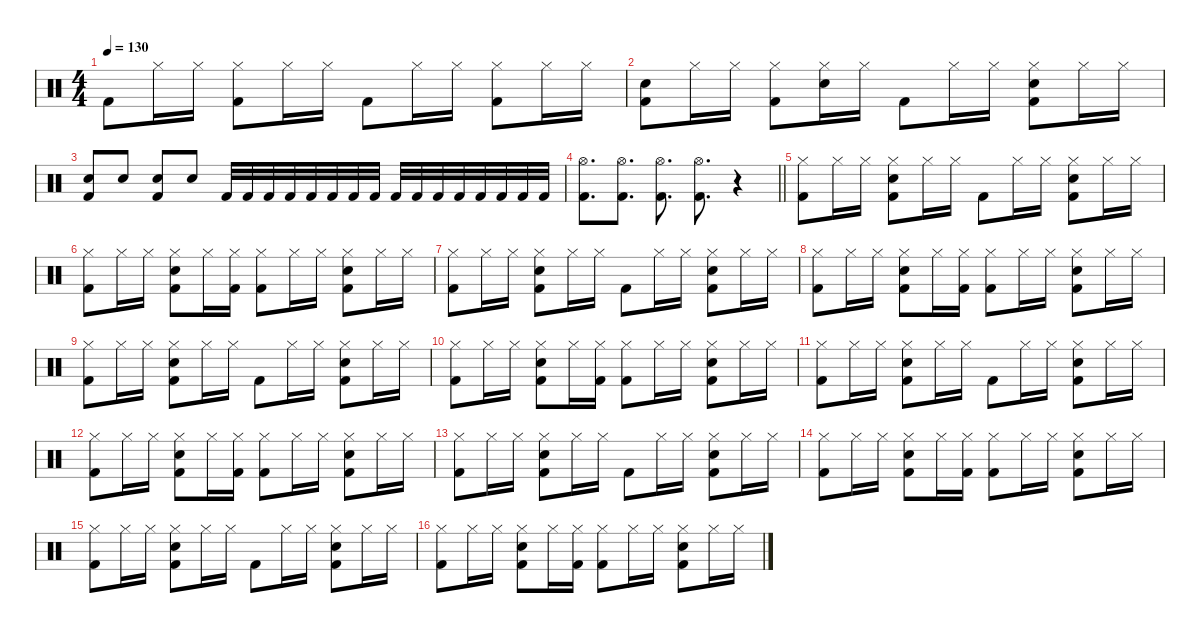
\defaultSystemsLayout 4
\hideDynamics
\bracketExtendMode nobrackets
\singleTrackTrackNamePolicy hidden
\multiTrackTrackNamePolicy hidden
\otherSystemsTrackNameOrientation horizontal
\track ("Percussion" "drm.") {defaultSystemsLayout 4 instrument percussion}
\staff {score}
\articulation defaults
\ts (4 4)
\tempo 130
\clef neutral
\ks c "Kick (hit) 2".8{dy f beam Down} "Hi-Hat (closed)".16{beam Down} "Hi-Hat (closed)".16{beam Down}
("Hi-Hat (closed)" "Kick (hit) 2").8{beam Down} "Hi-Hat (closed)".16{beam Down} "Hi-Hat (closed)".16{beam Down} "Kick (hit) 2".8{beam Down} "Hi-Hat (closed)".16{beam Down} "Hi-Hat (closed)".16{beam Down} ("Hi-Hat (closed)" "Kick (hit) 2").8{beam Down} "Hi-Hat (closed)".16{beam Down} "Hi-Hat (closed)".16{beam Down} |
("Snare (hit) 2" "Kick (hit) 2").8{beam Down} "Hi-Hat (closed)".16{beam Down} "Hi-Hat (closed)".16{beam Down} ("Hi-Hat (closed)" "Kick (hit) 2").8{beam Down} ("Hi-Hat (closed)" "Snare (hit) 2").16{beam Down} "Hi-Hat (closed)".16{beam Down} "Kick (hit) 2".8{beam Down} "Hi-Hat (closed)".16{beam Down} "Hi-Hat (closed)".16{beam Down} ("Hi-Hat (closed)" "Snare (hit) 2" "Kick (hit) 2").8{beam Down} "Hi-Hat (closed)".16{beam Down} "Hi-Hat (closed)".16{beam Down} |
("Snare (hit) 2" "Kick (hit) 2").8{beam Up} "Snare (hit) 2".8{beam Up} ("Snare (hit) 2" "Kick (hit) 2").8{beam Up} "Snare (hit) 2".8{beam Up} "Kick (hit) 2".32{beam Up} "Kick (hit) 2".32{beam Up} "Kick (hit) 2".32{beam Up} "Kick (hit) 2".32{beam Up} "Kick (hit) 2".32{beam Up} "Kick (hit) 2".32{beam Up} "Kick (hit) 2".32{beam Up} "Kick (hit) 2".32{beam Up} "Kick (hit) 2".32{beam Up} "Kick (hit) 2".32{beam Up} "Kick (hit) 2".32{beam Up} "Kick (hit) 2".32{beam Up} "Kick (hit) 2".32{beam Up} "Kick (hit) 2".32{beam Up} "Kick (hit) 2".32{beam Up} "Kick (hit) 2".32{beam Up} |
\barLineRight lightlight
("Hi-Hat (open)" "Kick (hit) 2").8{d beam Down} ("Hi-Hat (open)" "Kick (hit) 2").8{d beam Down} ("Hi-Hat (open)" "Kick (hit) 2").8{d beam Down} ("Hi-Hat (open)" "Kick (hit) 2").8{d beam Down} r.4{beam Down} |
("Hi-Hat (closed)" "Kick (hit) 2").8{beam Down} "Hi-Hat (closed)".16{beam Down} "Hi-Hat (closed)".16{beam Down} ("Hi-Hat (closed)" "Snare (hit) 2" "Kick (hit) 2").8{beam Down} "Hi-Hat (closed)".16{beam Down} "Hi-Hat (closed)".16{beam Down} "Kick (hit) 2".8{beam Down} "Hi-Hat (closed)".16{beam Down} "Hi-Hat (closed)".16{beam Down} ("Hi-Hat (closed)" "Snare (hit) 2" "Kick (hit) 2").8{beam Down} "Hi-Hat (closed)".16{beam Down} "Hi-Hat (closed)".16{beam Down} |
("Hi-Hat (closed)" "Kick (hit) 2").8{beam Down} "Hi-Hat (closed)".16{beam Down} "Hi-Hat (closed)".16{beam Down} ("Hi-Hat (closed)" "Snare (hit) 2" "Kick (hit) 2").8{beam Down} "Hi-Hat (closed)".16{beam Down} ("Hi-Hat (closed)" "Kick (hit) 2").16{beam Down} ("Hi-Hat (closed)" "Kick (hit) 2").8{beam Down} "Hi-Hat (closed)".16{beam Down} "Hi-Hat (closed)".16{beam Down} ("Hi-Hat (closed)" "Snare (hit) 2" "Kick (hit) 2").8{beam Down} "Hi-Hat (closed)".16{beam Down} "Hi-Hat (closed)".16{beam Down} |
("Hi-Hat (closed)" "Kick (hit) 2").8{beam Down} "Hi-Hat (closed)".16{beam Down} "Hi-Hat (closed)".16{beam Down} ("Hi-Hat (closed)" "Snare (hit) 2" "Kick (hit) 2").8{beam Down} "Hi-Hat (closed)".16{beam Down} "Hi-Hat (closed)".16{beam Down} "Kick (hit) 2".8{beam Down} "Hi-Hat (closed)".16{beam Down} "Hi-Hat (closed)".16{beam Down} ("Hi-Hat (closed)" "Snare (hit) 2" "Kick (hit) 2").8{beam Down} "Hi-Hat (closed)".16{beam Down} "Hi-Hat (closed)".16{beam Down} |
("Hi-Hat (closed)" "Kick (hit) 2").8{beam Down} "Hi-Hat (closed)".16{beam Down} "Hi-Hat (closed)".16{beam Down} ("Hi-Hat (closed)" "Snare (hit) 2" "Kick (hit) 2").8{beam Down} "Hi-Hat (closed)".16{beam Down} ("Hi-Hat (closed)" "Kick (hit) 2").16{beam Down} ("Hi-Hat (closed)" "Kick (hit) 2").8{beam Down} "Hi-Hat (closed)".16{beam Down} "Hi-Hat (closed)".16{beam Down} ("Hi-Hat (closed)" "Snare (hit) 2" "Kick (hit) 2").8{beam Down} "Hi-Hat (closed)".16{beam Down} "Hi-Hat (closed)".16{beam Down} |
("Hi-Hat (closed)" "Kick (hit) 2").8{beam Down} "Hi-Hat (closed)".16{beam Down} "Hi-Hat (closed)".16{beam Down} ("Hi-Hat (closed)" "Snare (hit) 2" "Kick (hit) 2").8{beam Down} "Hi-Hat (closed)".16{beam Down} "Hi-Hat (closed)".16{beam Down} "Kick (hit) 2".8{beam Down} "Hi-Hat (closed)".16{beam Down} "Hi-Hat (closed)".16{beam Down} ("Hi-Hat (closed)" "Snare (hit) 2" "Kick (hit) 2").8{beam Down} "Hi-Hat (closed)".16{beam Down} "Hi-Hat (closed)".16{beam Down} |
("Hi-Hat (closed)" "Kick (hit) 2").8{beam Down} "Hi-Hat (closed)".16{beam Down} "Hi-Hat (closed)".16{beam Down} ("Hi-Hat (closed)" "Snare (hit) 2" "Kick (hit) 2").8{beam Down} "Hi-Hat (closed)".16{beam Down} ("Hi-Hat (closed)" "Kick (hit) 2").16{beam Down} ("Hi-Hat (closed)" "Kick (hit) 2").8{beam Down} "Hi-Hat (closed)".16{beam Down} "Hi-Hat (closed)".16{beam Down} ("Hi-Hat (closed)" "Snare (hit) 2" "Kick (hit) 2").8{beam Down} "Hi-Hat (closed)".16{beam Down} "Hi-Hat (closed)".16{beam Down} |
("Hi-Hat (closed)" "Kick (hit) 2").8{beam Down} "Hi-Hat (closed)".16{beam Down} "Hi-Hat (closed)".16{beam Down} ("Hi-Hat (closed)" "Snare (hit) 2" "Kick (hit) 2").8{beam Down} "Hi-Hat (closed)".16{beam Down} "Hi-Hat (closed)".16{beam Down} "Kick (hit) 2".8{beam Down} "Hi-Hat (closed)".16{beam Down} "Hi-Hat (closed)".16{beam Down} ("Hi-Hat (closed)" "Snare (hit) 2" "Kick (hit) 2").8{beam Down} "Hi-Hat (closed)".16{beam Down} "Hi-Hat (closed)".16{beam Down} |
("Hi-Hat (closed)" "Kick (hit) 2").8{beam Down} "Hi-Hat (closed)".16{beam Down} "Hi-Hat (closed)".16{beam Down} ("Hi-Hat (closed)" "Snare (hit) 2" "Kick (hit) 2").8{beam Down} "Hi-Hat (closed)".16{beam Down} ("Hi-Hat (closed)" "Kick (hit) 2").16{beam Down} ("Hi-Hat (closed)" "Kick (hit) 2").8{beam Down} "Hi-Hat (closed)".16{beam Down} "Hi-Hat (closed)".16{beam Down} ("Hi-Hat (closed)" "Snare (hit) 2" "Kick (hit) 2").8{beam Down} "Hi-Hat (closed)".16{beam Down} "Hi-Hat (closed)".16{beam Down} |
("Hi-Hat (closed)" "Kick (hit) 2").8{beam Down} "Hi-Hat (closed)".16{beam Down} "Hi-Hat (closed)".16{beam Down} ("Hi-Hat (closed)" "Snare (hit) 2" "Kick (hit) 2").8{beam Down} "Hi-Hat (closed)".16{beam Down} "Hi-Hat (closed)".16{beam Down} "Kick (hit) 2".8{beam Down} "Hi-Hat (closed)".16{beam Down} "Hi-Hat (closed)".16{beam Down} ("Hi-Hat (closed)" "Snare (hit) 2" "Kick (hit) 2").8{beam Down} "Hi-Hat (closed)".16{beam Down} "Hi-Hat (closed)".16{beam Down} |
("Hi-Hat (closed)" "Kick (hit) 2").8{beam Down} "Hi-Hat (closed)".16{beam Down} "Hi-Hat (closed)".16{beam Down} ("Hi-Hat (closed)" "Snare (hit) 2" "Kick (hit) 2").8{beam Down} "Hi-Hat (closed)".16{beam Down} ("Hi-Hat (closed)" "Kick (hit) 2").16{beam Down} ("Hi-Hat (closed)" "Kick (hit) 2").8{beam Down} "Hi-Hat (closed)".16{beam Down} "Hi-Hat (closed)".16{beam Down} ("Hi-Hat (closed)" "Snare (hit) 2" "Kick (hit) 2").8{beam Down} "Hi-Hat (closed)".16{beam Down} "Hi-Hat (closed)".16{beam Down} |
("Hi-Hat (closed)" "Kick (hit) 2").8{beam Down} "Hi-Hat (closed)".16{beam Down} "Hi-Hat (closed)".16{beam Down} ("Hi-Hat (closed)" "Snare (hit) 2" "Kick (hit) 2").8{beam Down} "Hi-Hat (closed)".16{beam Down} "Hi-Hat (closed)".16{beam Down} "Kick (hit) 2".8{beam Down} "Hi-Hat (closed)".16{beam Down} "Hi-Hat (closed)".16{beam Down} ("Hi-Hat (closed)" "Snare (hit) 2" "Kick (hit) 2").8{beam Down} "Hi-Hat (closed)".16{beam Down} "Hi-Hat (closed)".16{beam Down} |
("Hi-Hat (closed)" "Kick (hit) 2").8{beam Down} "Hi-Hat (closed)".16{beam Down} "Hi-Hat (closed)".16{beam Down} ("Hi-Hat (closed)" "Snare (hit) 2" "Kick (hit) 2").8{beam Down} "Hi-Hat (closed)".16{beam Down} ("Hi-Hat (closed)" "Kick (hit) 2").16{beam Down} ("Hi-Hat (closed)" "Kick (hit) 2").8{beam Down} "Hi-Hat (closed)".16{beam Down} "Hi-Hat (closed)".16{beam Down} ("Hi-Hat (closed)" "Snare (hit) 2" "Kick (hit) 2").8{beam Down} "Hi-Hat (closed)".16{beam Down} "Hi-Hat (closed)".16{beam Down}
